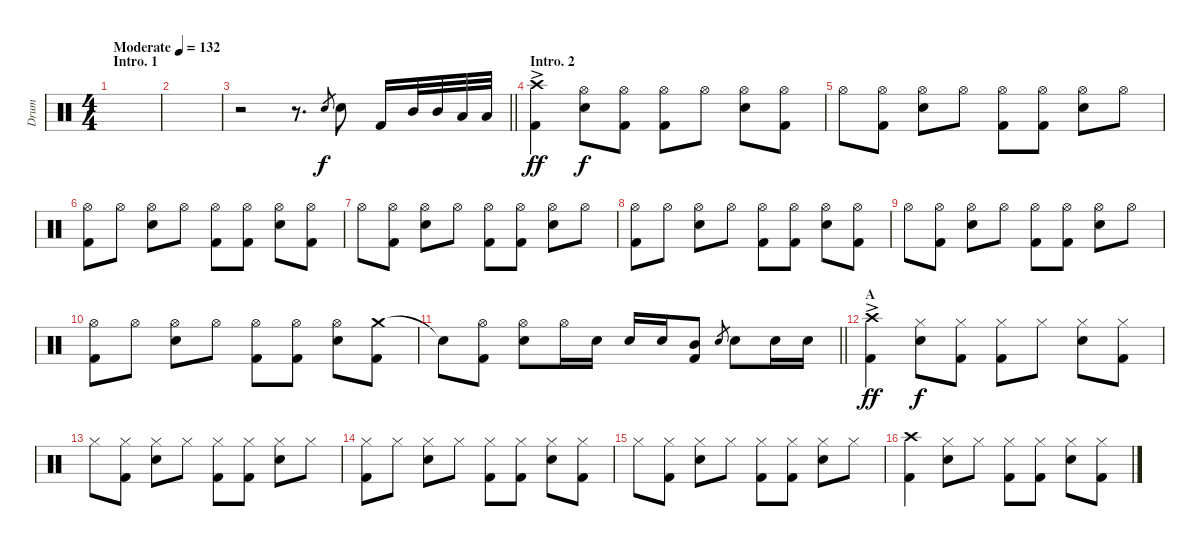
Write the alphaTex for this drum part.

\track ("Drum" "Drum") {instrument percussion}
\staff {score}
\articulation defaults
\ts (4 4)
\section ("" "Intro. 1")
\tempo (132 "Moderate")
\clef neutral
\ks c
|
|
\barLineRight lightlight
r.2 r.8{d} "Electric Snare (hit)".8{gr} "Electric Snare (hit)".8 "Kick (hit) 2".16 "Mid Tom (hit)".32 "Mid Tom (hit)".32 "Low Tom (hit)".32 "Low Tom (hit)".32 |
\section ("" "Intro. 2")
("Crash high (hit)"{ac} "Kick (hit) 2").4{dy ff} ("Hi-Hat (open)" "Electric Snare (hit)").8{dy f} ("Hi-Hat (open)" "Kick (hit) 2").8 ("Hi-Hat (open)" "Kick (hit) 2").8 "Hi-Hat (open)".8 ("Hi-Hat (open)" "Electric Snare (hit)").8 ("Hi-Hat (open)" "Kick (hit) 2").8 |
"Hi-Hat (open)".8 ("Hi-Hat (open)" "Kick (hit) 2").8 ("Hi-Hat (open)" "Electric Snare (hit)").8 "Hi-Hat (open)".8 ("Hi-Hat (open)" "Kick (hit) 2").8 ("Hi-Hat (open)" "Kick (hit) 2").8 ("Hi-Hat (open)" "Electric Snare (hit)").8 "Hi-Hat (open)".8 |
("Hi-Hat (open)" "Kick (hit) 2").8 "Hi-Hat (open)".8 ("Hi-Hat (open)" "Electric Snare (hit)").8 "Hi-Hat (open)".8 ("Hi-Hat (open)" "Kick (hit) 2").8 ("Hi-Hat (open)" "Kick (hit) 2").8 ("Hi-Hat (open)" "Electric Snare (hit)").8 ("Hi-Hat (open)" "Kick (hit) 2").8 |
"Hi-Hat (open)".8 ("Hi-Hat (open)" "Kick (hit) 2").8 ("Hi-Hat (open)" "Electric Snare (hit)").8 "Hi-Hat (open)".8 ("Hi-Hat (open)" "Kick (hit) 2").8 ("Hi-Hat (open)" "Kick (hit) 2").8 ("Hi-Hat (open)" "Electric Snare (hit)").8 "Hi-Hat (open)".8 |
("Hi-Hat (open)" "Kick (hit) 2").8 "Hi-Hat (open)".8 ("Hi-Hat (open)" "Electric Snare (hit)").8 "Hi-Hat (open)".8 ("Hi-Hat (open)" "Kick (hit) 2").8 ("Hi-Hat (open)" "Kick (hit) 2").8 ("Hi-Hat (open)" "Electric Snare (hit)").8 ("Hi-Hat (open)" "Kick (hit) 2").8 |
"Hi-Hat (open)".8 ("Hi-Hat (open)" "Kick (hit) 2").8 ("Hi-Hat (open)" "Electric Snare (hit)").8 "Hi-Hat (open)".8 ("Hi-Hat (open)" "Kick (hit) 2").8 ("Hi-Hat (open)" "Kick (hit) 2").8 ("Hi-Hat (open)" "Electric Snare (hit)").8 "Hi-Hat (open)".8 |
("Hi-Hat (open)" "Kick (hit) 2").8 "Hi-Hat (open)".8 ("Hi-Hat (open)" "Electric Snare (hit)").8 "Hi-Hat (open)".8 ("Hi-Hat (open)" "Kick (hit) 2").8 ("Hi-Hat (open)" "Kick (hit) 2").8 ("Hi-Hat (open)" "Electric Snare (hit)").8 ("Crash medium (hit)" "Kick (hit) 2").8 |
\barLineRight lightlight "Snare (hit)"{t}.8
("Hi-Hat (open)" "Kick (hit) 2").8 ("Hi-Hat (open)" "Electric Snare (hit)").8 "Hi-Hat (open)".16 "Electric Snare (hit)".16 "Electric Snare (hit)".16 "Electric Snare (hit)".16 ("Mid Tom (hit)" "Kick (hit) 2").8 "Electric Snare (hit)".8{gr} "Electric Snare (hit)".8 "Electric Snare (hit)".16 "Electric Snare (hit)".16 |
\section ("" "A")
("Crash high (hit)"{ac} "Kick (hit) 2").4{dy ff} ("Hi-Hat (closed)" "Electric Snare (hit)").8{dy f} ("Hi-Hat (closed)" "Kick (hit) 2").8 ("Hi-Hat (closed)" "Kick (hit) 2").8 "Hi-Hat (closed)".8 ("Hi-Hat (closed)" "Electric Snare (hit)").8 ("Hi-Hat (closed)" "Kick (hit) 2").8 |
"Hi-Hat (closed)".8 ("Hi-Hat (closed)" "Kick (hit) 2").8 ("Hi-Hat (closed)" "Electric Snare (hit)").8 "Hi-Hat (closed)".8 ("Hi-Hat (closed)" "Kick (hit) 2").8 ("Hi-Hat (closed)" "Kick (hit) 2").8 ("Hi-Hat (closed)" "Electric Snare (hit)").8 "Hi-Hat (closed)".8 |
("Hi-Hat (closed)" "Kick (hit) 2").8 "Hi-Hat (closed)".8 ("Hi-Hat (closed)" "Electric Snare (hit)").8 "Hi-Hat (closed)".8 ("Hi-Hat (closed)" "Kick (hit) 2").8 ("Hi-Hat (closed)" "Kick (hit) 2").8 ("Hi-Hat (closed)" "Electric Snare (hit)").8 ("Hi-Hat (closed)" "Kick (hit) 2").8 |
"Hi-Hat (closed)".8 ("Hi-Hat (closed)" "Kick (hit) 2").8 ("Hi-Hat (closed)" "Electric Snare (hit)").8 "Hi-Hat (closed)".8 ("Hi-Hat (closed)" "Kick (hit) 2").8 ("Hi-Hat (closed)" "Kick (hit) 2").8 ("Hi-Hat (closed)" "Electric Snare (hit)").8 "Hi-Hat (closed)".8 |
("Crash high (hit)" "Kick (hit) 2").4 ("Hi-Hat (closed)" "Electric Snare (hit)").8 "Hi-Hat (closed)".8 ("Hi-Hat (closed)" "Kick (hit) 2").8 ("Hi-Hat (closed)" "Kick (hit) 2").8 ("Hi-Hat (closed)" "Electric Snare (hit)").8 ("Hi-Hat (closed)" "Kick (hit) 2").8
